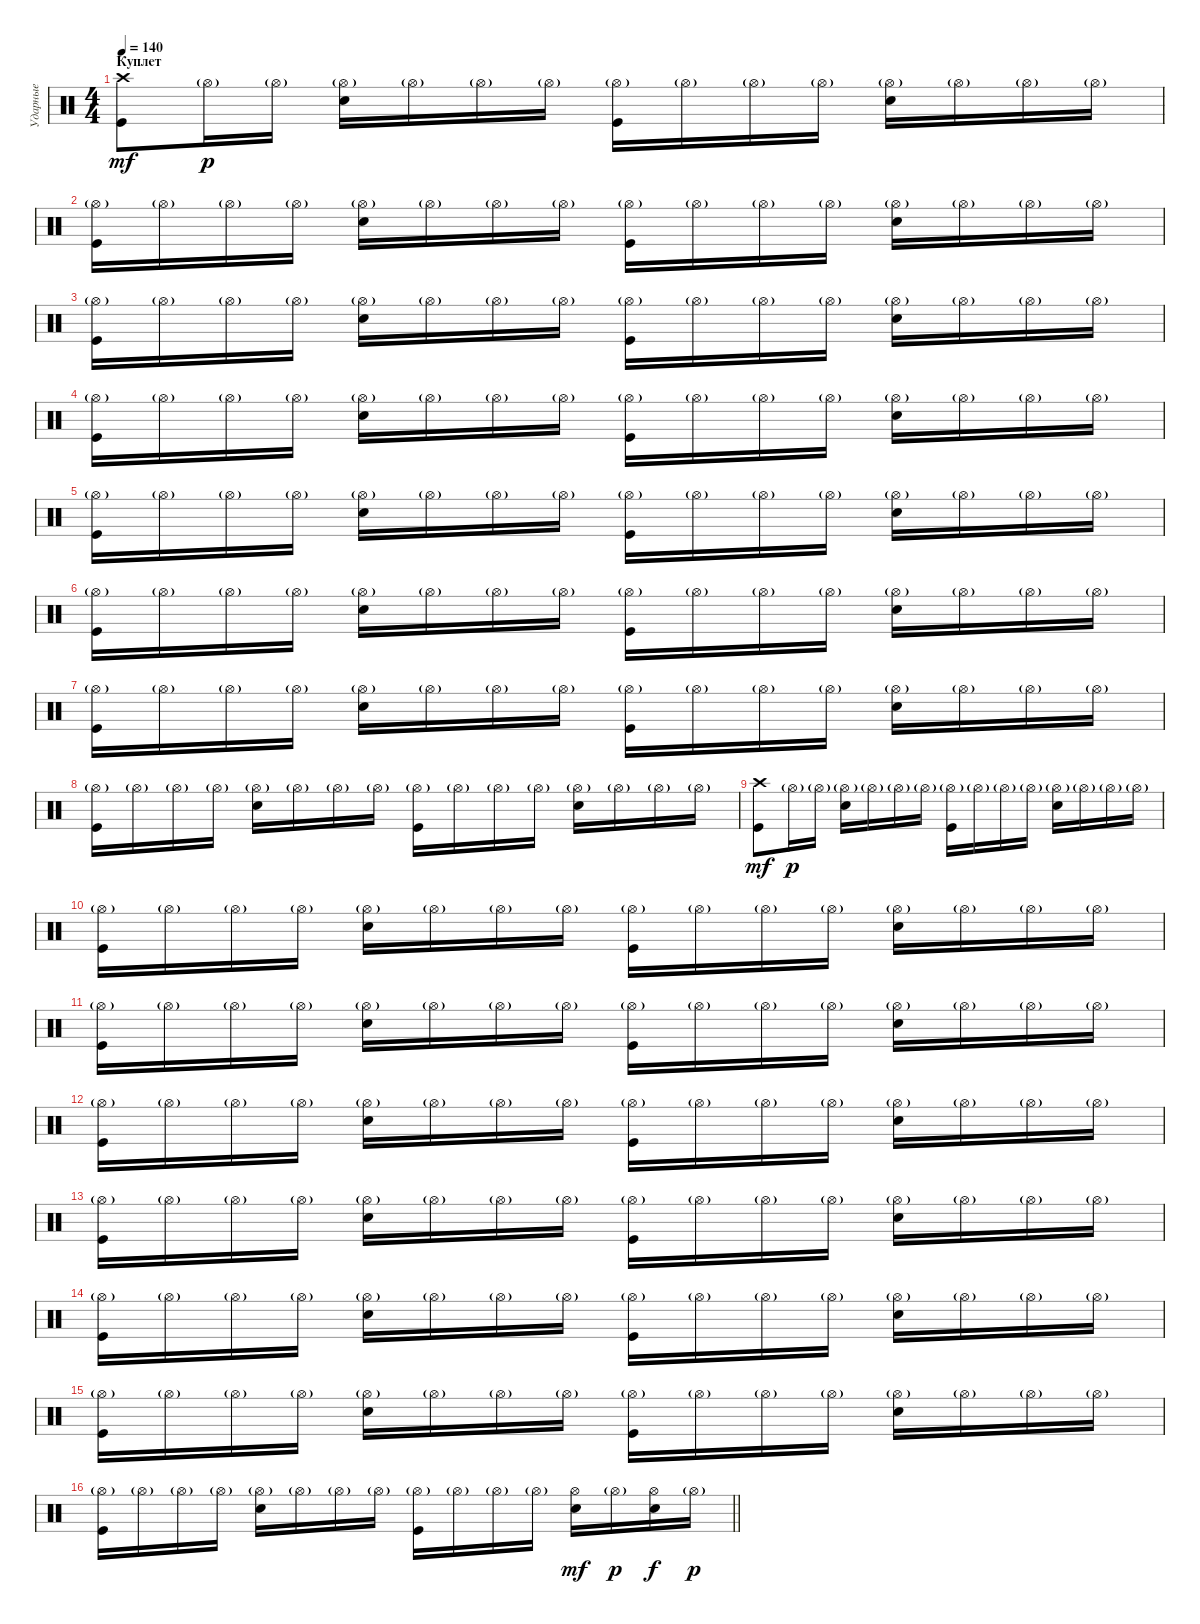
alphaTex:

\track ("Ударные" "Ударные") {instrument percussion}
\staff {score}
\articulation defaults
\ts (4 4)
\section ("" "Куплет ")
\tempo 140
\clef neutral
\ks c
("Kick (hit)" "Crash high (hit)").8{dy mf} "Hi-Hat (open)"{g}.16{dy p} "Hi-Hat (open)"{g}.16 ("Snare (hit) 2" "Hi-Hat (open)"{g}).16 "Hi-Hat (open)"{g}.16 "Hi-Hat (open)"{g}.16 "Hi-Hat (open)"{g}.16 ("Kick (hit)" "Hi-Hat (open)"{g}).16 "Hi-Hat (open)"{g}.16 "Hi-Hat (open)"{g}.16 "Hi-Hat (open)"{g}.16 ("Snare (hit) 2" "Hi-Hat (open)"{g}).16 "Hi-Hat (open)"{g}.16 "Hi-Hat (open)"{g}.16 "Hi-Hat (open)"{g}.16 |
("Kick (hit)" "Hi-Hat (open)"{g}).16 "Hi-Hat (open)"{g}.16 "Hi-Hat (open)"{g}.16 "Hi-Hat (open)"{g}.16 ("Snare (hit) 2" "Hi-Hat (open)"{g}).16 "Hi-Hat (open)"{g}.16 "Hi-Hat (open)"{g}.16 "Hi-Hat (open)"{g}.16 ("Kick (hit)" "Hi-Hat (open)"{g}).16 "Hi-Hat (open)"{g}.16 "Hi-Hat (open)"{g}.16 "Hi-Hat (open)"{g}.16 ("Snare (hit) 2" "Hi-Hat (open)"{g}).16 "Hi-Hat (open)"{g}.16 "Hi-Hat (open)"{g}.16 "Hi-Hat (open)"{g}.16 |
("Kick (hit)" "Hi-Hat (open)"{g}).16 "Hi-Hat (open)"{g}.16 "Hi-Hat (open)"{g}.16 "Hi-Hat (open)"{g}.16 ("Snare (hit) 2" "Hi-Hat (open)"{g}).16 "Hi-Hat (open)"{g}.16 "Hi-Hat (open)"{g}.16 "Hi-Hat (open)"{g}.16 ("Kick (hit)" "Hi-Hat (open)"{g}).16 "Hi-Hat (open)"{g}.16 "Hi-Hat (open)"{g}.16 "Hi-Hat (open)"{g}.16 ("Snare (hit) 2" "Hi-Hat (open)"{g}).16 "Hi-Hat (open)"{g}.16 "Hi-Hat (open)"{g}.16 "Hi-Hat (open)"{g}.16 |
("Kick (hit)" "Hi-Hat (open)"{g}).16 "Hi-Hat (open)"{g}.16 "Hi-Hat (open)"{g}.16 "Hi-Hat (open)"{g}.16 ("Snare (hit) 2" "Hi-Hat (open)"{g}).16 "Hi-Hat (open)"{g}.16 "Hi-Hat (open)"{g}.16 "Hi-Hat (open)"{g}.16 ("Kick (hit)" "Hi-Hat (open)"{g}).16 "Hi-Hat (open)"{g}.16 "Hi-Hat (open)"{g}.16 "Hi-Hat (open)"{g}.16 ("Snare (hit) 2" "Hi-Hat (open)"{g}).16 "Hi-Hat (open)"{g}.16 "Hi-Hat (open)"{g}.16 "Hi-Hat (open)"{g}.16 |
("Kick (hit)" "Hi-Hat (open)"{g}).16 "Hi-Hat (open)"{g}.16 "Hi-Hat (open)"{g}.16 "Hi-Hat (open)"{g}.16 ("Snare (hit) 2" "Hi-Hat (open)"{g}).16 "Hi-Hat (open)"{g}.16 "Hi-Hat (open)"{g}.16 "Hi-Hat (open)"{g}.16 ("Kick (hit)" "Hi-Hat (open)"{g}).16 "Hi-Hat (open)"{g}.16 "Hi-Hat (open)"{g}.16 "Hi-Hat (open)"{g}.16 ("Snare (hit) 2" "Hi-Hat (open)"{g}).16 "Hi-Hat (open)"{g}.16 "Hi-Hat (open)"{g}.16 "Hi-Hat (open)"{g}.16 |
("Kick (hit)" "Hi-Hat (open)"{g}).16 "Hi-Hat (open)"{g}.16 "Hi-Hat (open)"{g}.16 "Hi-Hat (open)"{g}.16 ("Snare (hit) 2" "Hi-Hat (open)"{g}).16 "Hi-Hat (open)"{g}.16 "Hi-Hat (open)"{g}.16 "Hi-Hat (open)"{g}.16 ("Kick (hit)" "Hi-Hat (open)"{g}).16 "Hi-Hat (open)"{g}.16 "Hi-Hat (open)"{g}.16 "Hi-Hat (open)"{g}.16 ("Snare (hit) 2" "Hi-Hat (open)"{g}).16 "Hi-Hat (open)"{g}.16 "Hi-Hat (open)"{g}.16 "Hi-Hat (open)"{g}.16 |
("Kick (hit)" "Hi-Hat (open)"{g}).16 "Hi-Hat (open)"{g}.16 "Hi-Hat (open)"{g}.16 "Hi-Hat (open)"{g}.16 ("Snare (hit) 2" "Hi-Hat (open)"{g}).16 "Hi-Hat (open)"{g}.16 "Hi-Hat (open)"{g}.16 "Hi-Hat (open)"{g}.16 ("Kick (hit)" "Hi-Hat (open)"{g}).16 "Hi-Hat (open)"{g}.16 "Hi-Hat (open)"{g}.16 "Hi-Hat (open)"{g}.16 ("Snare (hit) 2" "Hi-Hat (open)"{g}).16 "Hi-Hat (open)"{g}.16 "Hi-Hat (open)"{g}.16 "Hi-Hat (open)"{g}.16 |
("Kick (hit)" "Hi-Hat (open)"{g}).16 "Hi-Hat (open)"{g}.16 "Hi-Hat (open)"{g}.16 "Hi-Hat (open)"{g}.16 ("Snare (hit) 2" "Hi-Hat (open)"{g}).16 "Hi-Hat (open)"{g}.16 "Hi-Hat (open)"{g}.16 "Hi-Hat (open)"{g}.16 ("Kick (hit)" "Hi-Hat (open)"{g}).16 "Hi-Hat (open)"{g}.16 "Hi-Hat (open)"{g}.16 "Hi-Hat (open)"{g}.16 ("Snare (hit) 2" "Hi-Hat (open)"{g}).16 "Hi-Hat (open)"{g}.16 "Hi-Hat (open)"{g}.16 "Hi-Hat (open)"{g}.16 |
("Kick (hit)" "Crash high (hit)").8{dy mf} "Hi-Hat (open)"{g}.16{dy p} "Hi-Hat (open)"{g}.16 ("Snare (hit) 2" "Hi-Hat (open)"{g}).16 "Hi-Hat (open)"{g}.16 "Hi-Hat (open)"{g}.16 "Hi-Hat (open)"{g}.16 ("Kick (hit)" "Hi-Hat (open)"{g}).16 "Hi-Hat (open)"{g}.16 "Hi-Hat (open)"{g}.16 "Hi-Hat (open)"{g}.16 ("Snare (hit) 2" "Hi-Hat (open)"{g}).16 "Hi-Hat (open)"{g}.16 "Hi-Hat (open)"{g}.16 "Hi-Hat (open)"{g}.16 |
("Kick (hit)" "Hi-Hat (open)"{g}).16 "Hi-Hat (open)"{g}.16 "Hi-Hat (open)"{g}.16 "Hi-Hat (open)"{g}.16 ("Snare (hit) 2" "Hi-Hat (open)"{g}).16 "Hi-Hat (open)"{g}.16 "Hi-Hat (open)"{g}.16 "Hi-Hat (open)"{g}.16 ("Kick (hit)" "Hi-Hat (open)"{g}).16 "Hi-Hat (open)"{g}.16 "Hi-Hat (open)"{g}.16 "Hi-Hat (open)"{g}.16 ("Snare (hit) 2" "Hi-Hat (open)"{g}).16 "Hi-Hat (open)"{g}.16 "Hi-Hat (open)"{g}.16 "Hi-Hat (open)"{g}.16 |
("Kick (hit)" "Hi-Hat (open)"{g}).16 "Hi-Hat (open)"{g}.16 "Hi-Hat (open)"{g}.16 "Hi-Hat (open)"{g}.16 ("Snare (hit) 2" "Hi-Hat (open)"{g}).16 "Hi-Hat (open)"{g}.16 "Hi-Hat (open)"{g}.16 "Hi-Hat (open)"{g}.16 ("Kick (hit)" "Hi-Hat (open)"{g}).16 "Hi-Hat (open)"{g}.16 "Hi-Hat (open)"{g}.16 "Hi-Hat (open)"{g}.16 ("Snare (hit) 2" "Hi-Hat (open)"{g}).16 "Hi-Hat (open)"{g}.16 "Hi-Hat (open)"{g}.16 "Hi-Hat (open)"{g}.16 |
("Kick (hit)" "Hi-Hat (open)"{g}).16 "Hi-Hat (open)"{g}.16 "Hi-Hat (open)"{g}.16 "Hi-Hat (open)"{g}.16 ("Snare (hit) 2" "Hi-Hat (open)"{g}).16 "Hi-Hat (open)"{g}.16 "Hi-Hat (open)"{g}.16 "Hi-Hat (open)"{g}.16 ("Kick (hit)" "Hi-Hat (open)"{g}).16 "Hi-Hat (open)"{g}.16 "Hi-Hat (open)"{g}.16 "Hi-Hat (open)"{g}.16 ("Snare (hit) 2" "Hi-Hat (open)"{g}).16 "Hi-Hat (open)"{g}.16 "Hi-Hat (open)"{g}.16 "Hi-Hat (open)"{g}.16 |
("Kick (hit)" "Hi-Hat (open)"{g}).16 "Hi-Hat (open)"{g}.16 "Hi-Hat (open)"{g}.16 "Hi-Hat (open)"{g}.16 ("Snare (hit) 2" "Hi-Hat (open)"{g}).16 "Hi-Hat (open)"{g}.16 "Hi-Hat (open)"{g}.16 "Hi-Hat (open)"{g}.16 ("Kick (hit)" "Hi-Hat (open)"{g}).16 "Hi-Hat (open)"{g}.16 "Hi-Hat (open)"{g}.16 "Hi-Hat (open)"{g}.16 ("Snare (hit) 2" "Hi-Hat (open)"{g}).16 "Hi-Hat (open)"{g}.16 "Hi-Hat (open)"{g}.16 "Hi-Hat (open)"{g}.16 |
("Kick (hit)" "Hi-Hat (open)"{g}).16 "Hi-Hat (open)"{g}.16 "Hi-Hat (open)"{g}.16 "Hi-Hat (open)"{g}.16 ("Snare (hit) 2" "Hi-Hat (open)"{g}).16 "Hi-Hat (open)"{g}.16 "Hi-Hat (open)"{g}.16 "Hi-Hat (open)"{g}.16 ("Kick (hit)" "Hi-Hat (open)"{g}).16 "Hi-Hat (open)"{g}.16 "Hi-Hat (open)"{g}.16 "Hi-Hat (open)"{g}.16 ("Snare (hit) 2" "Hi-Hat (open)"{g}).16 "Hi-Hat (open)"{g}.16 "Hi-Hat (open)"{g}.16 "Hi-Hat (open)"{g}.16 |
("Kick (hit)" "Hi-Hat (open)"{g}).16 "Hi-Hat (open)"{g}.16 "Hi-Hat (open)"{g}.16 "Hi-Hat (open)"{g}.16 ("Snare (hit) 2" "Hi-Hat (open)"{g}).16 "Hi-Hat (open)"{g}.16 "Hi-Hat (open)"{g}.16 "Hi-Hat (open)"{g}.16 ("Kick (hit)" "Hi-Hat (open)"{g}).16 "Hi-Hat (open)"{g}.16 "Hi-Hat (open)"{g}.16 "Hi-Hat (open)"{g}.16 ("Snare (hit) 2" "Hi-Hat (open)"{g}).16 "Hi-Hat (open)"{g}.16 "Hi-Hat (open)"{g}.16 "Hi-Hat (open)"{g}.16 |
\barLineRight lightlight
("Kick (hit)" "Hi-Hat (open)"{g}).16 "Hi-Hat (open)"{g}.16 "Hi-Hat (open)"{g}.16 "Hi-Hat (open)"{g}.16 ("Snare (hit) 2" "Hi-Hat (open)"{g}).16 "Hi-Hat (open)"{g}.16 "Hi-Hat (open)"{g}.16 "Hi-Hat (open)"{g}.16 ("Kick (hit)" "Hi-Hat (open)"{g}).16 "Hi-Hat (open)"{g}.16 "Hi-Hat (open)"{g}.16 "Hi-Hat (open)"{g}.16 ("Snare (hit) 2" "Hi-Hat (open)").16{dy mf} "Hi-Hat (open)"{g}.16{dy p} ("Snare (hit) 2" "Hi-Hat (open)").16{dy f} "Hi-Hat (open)"{g}.16{dy p}
